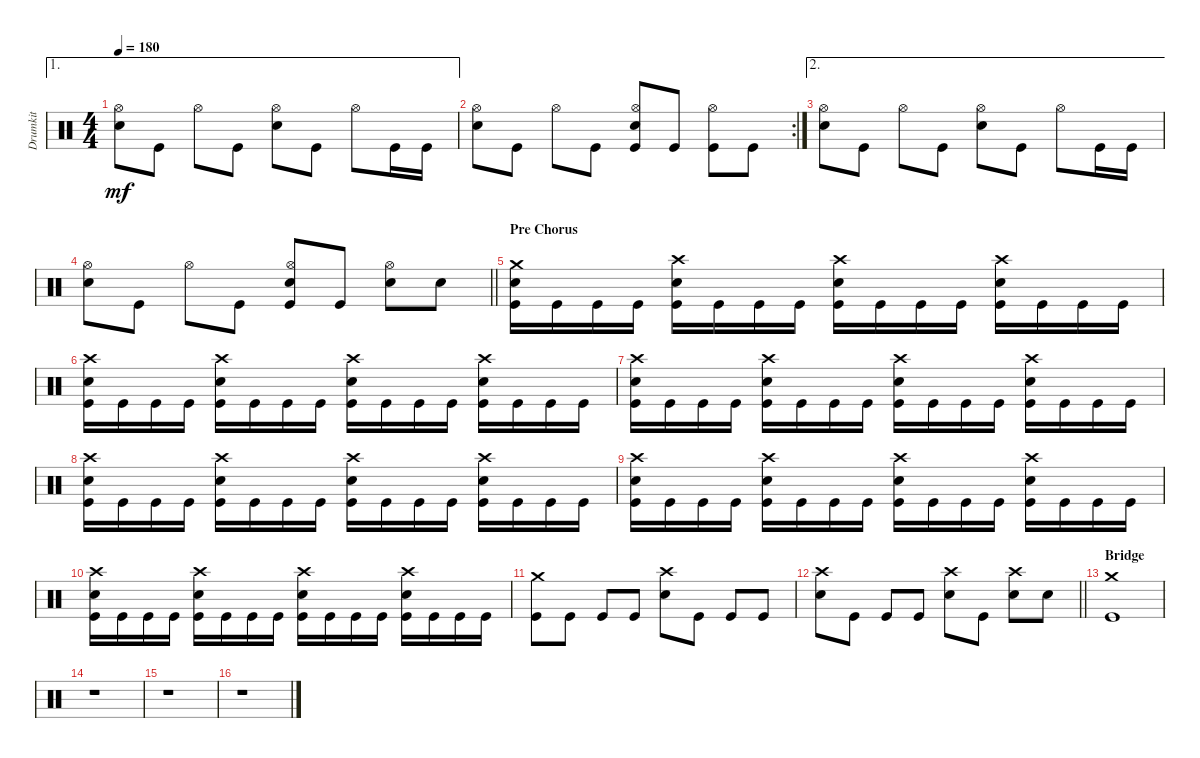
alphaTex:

\track ("Drumkit" "Drumkit") {instrument percussion}
\staff {score}
\articulation defaults
\ae 1
\ts (4 4)
\tempo 180
\clef neutral
\ks c
("Snare (hit) 2" "Hi-Hat (open)").8{dy mf} "Kick (hit)".8 "Hi-Hat (open)".8 "Kick (hit)".8 ("Snare (hit) 2" "Hi-Hat (open)").8 "Kick (hit)".8 "Hi-Hat (open)".8 "Kick (hit)".16 "Kick (hit)".16 |
\rc 2
("Snare (hit) 2" "Hi-Hat (open)").8 "Kick (hit)".8 "Hi-Hat (open)".8 "Kick (hit)".8 ("Snare (hit) 2" "Hi-Hat (open)" "Kick (hit)").8 "Kick (hit)".8 ("Hi-Hat (open)" "Kick (hit)").8 "Kick (hit)".8 |
\ae 2
("Snare (hit) 2" "Hi-Hat (open)").8 "Kick (hit)".8 "Hi-Hat (open)".8 "Kick (hit)".8 ("Snare (hit) 2" "Hi-Hat (open)").8 "Kick (hit)".8 "Hi-Hat (open)".8 "Kick (hit)".16 "Kick (hit)".16 |
\barLineRight lightlight
("Snare (hit) 2" "Hi-Hat (open)").8 "Kick (hit)".8 "Hi-Hat (open)".8 "Kick (hit)".8 ("Snare (hit) 2" "Hi-Hat (open)" "Kick (hit)").8 "Kick (hit)".8 ("Hi-Hat (open)" "Snare (hit) 2").8 "Snare (hit) 2".8 |
\section ("" "Pre Chorus")
("Kick (hit)" "Snare (hit) 2" "Crash medium (hit)").16 "Kick (hit)".16 "Kick (hit)".16 "Kick (hit)".16 ("Kick (hit)" "Snare (hit) 2" "Crash high (hit)").16 "Kick (hit)".16 "Kick (hit)".16 "Kick (hit)".16 ("Kick (hit)" "Snare (hit) 2" "Crash high (hit)").16 "Kick (hit)".16 "Kick (hit)".16 "Kick (hit)".16 ("Kick (hit)" "Snare (hit) 2" "Crash high (hit)").16 "Kick (hit)".16 "Kick (hit)".16 "Kick (hit)".16 |
("Kick (hit)" "Snare (hit) 2" "Crash high (hit)").16 "Kick (hit)".16 "Kick (hit)".16 "Kick (hit)".16 ("Kick (hit)" "Snare (hit) 2" "Crash high (hit)").16 "Kick (hit)".16 "Kick (hit)".16 "Kick (hit)".16 ("Kick (hit)" "Snare (hit) 2" "Crash high (hit)").16 "Kick (hit)".16 "Kick (hit)".16 "Kick (hit)".16 ("Kick (hit)" "Snare (hit) 2" "Crash high (hit)").16 "Kick (hit)".16 "Kick (hit)".16 "Kick (hit)".16 |
("Kick (hit)" "Snare (hit) 2" "Crash high (hit)").16 "Kick (hit)".16 "Kick (hit)".16 "Kick (hit)".16 ("Kick (hit)" "Snare (hit) 2" "Crash high (hit)").16 "Kick (hit)".16 "Kick (hit)".16 "Kick (hit)".16 ("Kick (hit)" "Snare (hit) 2" "Crash high (hit)").16 "Kick (hit)".16 "Kick (hit)".16 "Kick (hit)".16 ("Kick (hit)" "Snare (hit) 2" "Crash high (hit)").16 "Kick (hit)".16 "Kick (hit)".16 "Kick (hit)".16 |
("Kick (hit)" "Snare (hit) 2" "Crash high (hit)").16 "Kick (hit)".16 "Kick (hit)".16 "Kick (hit)".16 ("Kick (hit)" "Snare (hit) 2" "Crash high (hit)").16 "Kick (hit)".16 "Kick (hit)".16 "Kick (hit)".16 ("Kick (hit)" "Snare (hit) 2" "Crash high (hit)").16 "Kick (hit)".16 "Kick (hit)".16 "Kick (hit)".16 ("Kick (hit)" "Snare (hit) 2" "Crash high (hit)").16 "Kick (hit)".16 "Kick (hit)".16 "Kick (hit)".16 |
("Kick (hit)" "Snare (hit) 2" "Crash high (hit)").16 "Kick (hit)".16 "Kick (hit)".16 "Kick (hit)".16 ("Kick (hit)" "Snare (hit) 2" "Crash high (hit)").16 "Kick (hit)".16 "Kick (hit)".16 "Kick (hit)".16 ("Kick (hit)" "Snare (hit) 2" "Crash high (hit)").16 "Kick (hit)".16 "Kick (hit)".16 "Kick (hit)".16 ("Kick (hit)" "Snare (hit) 2" "Crash high (hit)").16 "Kick (hit)".16 "Kick (hit)".16 "Kick (hit)".16 |
("Kick (hit)" "Snare (hit) 2" "Crash high (hit)").16 "Kick (hit)".16 "Kick (hit)".16 "Kick (hit)".16 ("Kick (hit)" "Snare (hit) 2" "Crash high (hit)").16 "Kick (hit)".16 "Kick (hit)".16 "Kick (hit)".16 ("Kick (hit)" "Snare (hit) 2" "Crash high (hit)").16 "Kick (hit)".16 "Kick (hit)".16 "Kick (hit)".16 ("Kick (hit)" "Snare (hit) 2" "Crash high (hit)").16 "Kick (hit)".16 "Kick (hit)".16 "Kick (hit)".16 |
("Kick (hit)" "Crash medium (hit)").8 "Kick (hit)".8 "Kick (hit)".8 "Kick (hit)".8 ("Snare (hit) 2" "Crash high (hit)").8 "Kick (hit)".8 "Kick (hit)".8 "Kick (hit)".8 |
\barLineRight lightlight
("Snare (hit) 2" "Crash high (hit)").8 "Kick (hit)".8 "Kick (hit)".8 "Kick (hit)".8 ("Snare (hit) 2" "Crash high (hit)").8 "Kick (hit)".8 ("Snare (hit) 2" "Crash high (hit)").8 "Snare (hit) 2".8 |
\section ("" "Bridge")
("Kick (hit)" "Crash medium (hit)").1 |
r.1 |
r.1 |
r.1
